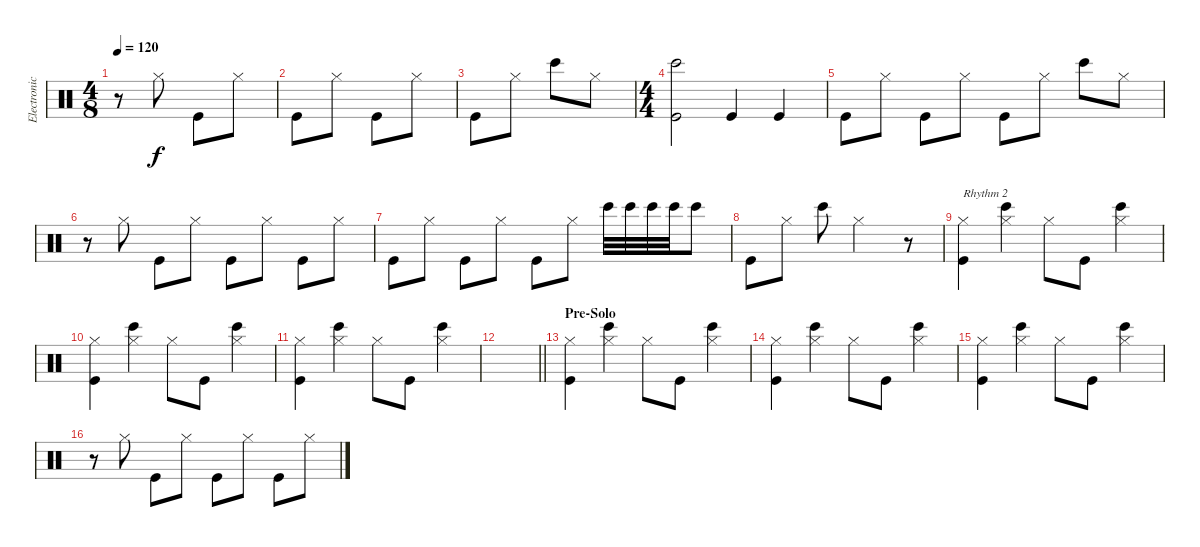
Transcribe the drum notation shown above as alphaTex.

\track ("Electronic Drums" "Electronic") {instrument percussion}
\staff {score}
\articulation defaults
\ts (4 8)
\tempo 120
\clef neutral
\ks c
r.8{dy f} "Hi-Hat (closed)".8 "Kick (hit)".8 "Hi-Hat (closed)".8 |
"Kick (hit)".8 "Hi-Hat (closed)".8 "Kick (hit)".8 "Hi-Hat (closed)".8 |
"Kick (hit)".8 "Hi-Hat (closed)".8 "Bongo High (hit)".8 "Hi-Hat (closed)".8 |
\ts (4 4)
("Bongo High (hit)" "Kick (hit)").2 "Kick (hit)".4 "Kick (hit)".4 |
"Kick (hit)".8 "Hi-Hat (closed)".8 "Kick (hit)".8 "Hi-Hat (closed)".8 "Kick (hit)".8 "Hi-Hat (closed)".8 "Bongo High (hit)".8 "Hi-Hat (closed)".8 |
r.8 "Hi-Hat (closed)".8 "Kick (hit)".8 "Hi-Hat (closed)".8 "Kick (hit)".8 "Hi-Hat (closed)".8 "Kick (hit)".8 "Hi-Hat (closed)".8 |
"Kick (hit)".8 "Hi-Hat (closed)".8 "Kick (hit)".8 "Hi-Hat (closed)".8 "Kick (hit)".8 "Hi-Hat (closed)".8 "Bongo High (hit)".32 "Bongo High (hit)".32 "Bongo High (hit)".32 "Bongo High (hit)".32 "Bongo High (hit)".8 |
"Kick (hit)".8 "Hi-Hat (closed)".8 "Bongo High (hit)".8 "Hi-Hat (closed)".2 r.8 |
("Hi-Hat (closed)" "Kick (hit)").4{txt "Rhythm 2"} ("Hi-Hat (closed)" "Bongo High (hit)").4 "Hi-Hat (closed)".8 "Kick (hit)".8 ("Hi-Hat (closed)" "Bongo High (hit)").4 |
("Hi-Hat (closed)" "Kick (hit)").4 ("Hi-Hat (closed)" "Bongo High (hit)").4 "Hi-Hat (closed)".8 "Kick (hit)".8 ("Hi-Hat (closed)" "Bongo High (hit)").4 |
("Hi-Hat (closed)" "Kick (hit)").4 ("Hi-Hat (closed)" "Bongo High (hit)").4 "Hi-Hat (closed)".8 "Kick (hit)".8 ("Hi-Hat (closed)" "Bongo High (hit)").4 |
\barLineRight lightlight
|
\section ("" "Pre-Solo")
("Hi-Hat (closed)" "Kick (hit)").4 ("Hi-Hat (closed)" "Bongo High (hit)").4 "Hi-Hat (closed)".8 "Kick (hit)".8 ("Hi-Hat (closed)" "Bongo High (hit)").4 |
("Hi-Hat (closed)" "Kick (hit)").4 ("Hi-Hat (closed)" "Bongo High (hit)").4 "Hi-Hat (closed)".8 "Kick (hit)".8 ("Hi-Hat (closed)" "Bongo High (hit)").4 |
("Hi-Hat (closed)" "Kick (hit)").4 ("Hi-Hat (closed)" "Bongo High (hit)").4 "Hi-Hat (closed)".8 "Kick (hit)".8 ("Hi-Hat (closed)" "Bongo High (hit)").4 |
r.8 "Hi-Hat (closed)".8 "Kick (hit)".8 "Hi-Hat (closed)".8 "Kick (hit)".8 "Hi-Hat (closed)".8 "Kick (hit)".8 "Hi-Hat (closed)".8
